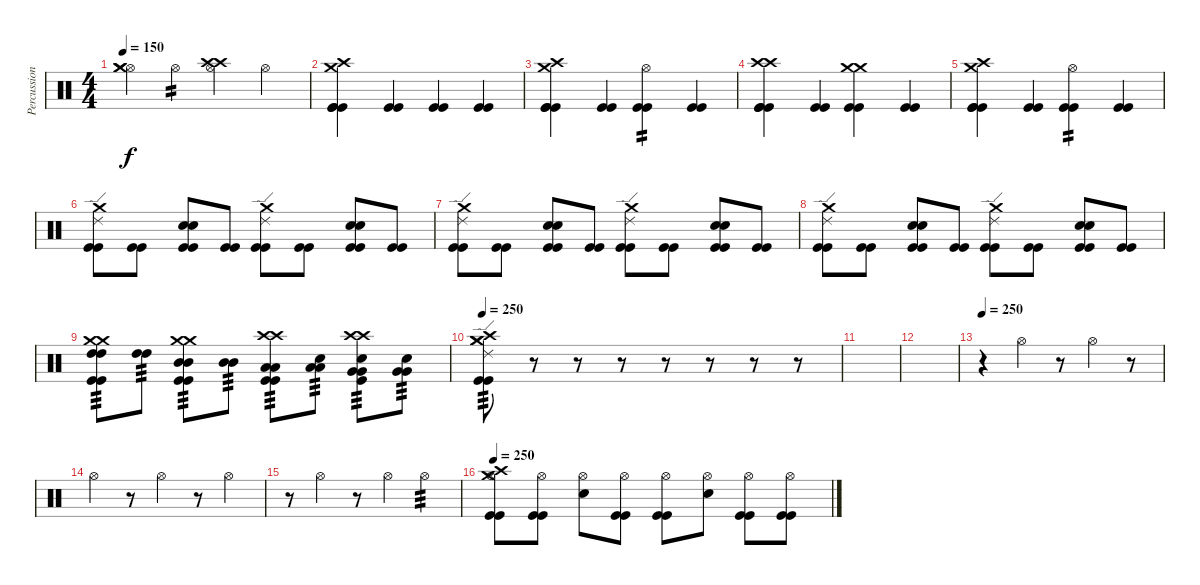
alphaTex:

\track ("Percussions" "Percussion") {instrument percussion}
\staff {score}
\articulation defaults
\ts (4 4)
\tempo 150
\clef neutral
\ks c
("Hi-Hat (open)" "Crash medium (hit)" "Crash medium (hit)").4{dy f} "Hi-Hat (open)".4{tp 2} ("Hi-Hat (open)" "Crash high (hit)" "Crash high (hit)").4 "Hi-Hat (open)".4 |
("Kick (hit)" "Kick (hit)" "Kick (hit)" "Crash medium (hit)" "Crash high (hit)").4 ("Kick (hit)" "Kick (hit)").4 ("Kick (hit)" "Kick (hit)").4 ("Kick (hit)" "Kick (hit)").4 |
("Kick (hit)" "Kick (hit)" "Kick (hit)" "Crash medium (hit)" "Crash high (hit)").4 ("Kick (hit)" "Kick (hit)").4 ("Kick (hit)" "Kick (hit)" "Hi-Hat (open)").4{tp 2} ("Kick (hit)" "Kick (hit)").4 |
("Kick (hit)" "Kick (hit)" "Kick (hit)" "Crash high (hit)" "Crash high (hit)").4 ("Kick (hit)" "Kick (hit)").4 ("Kick (hit)" "Kick (hit)" "Crash medium (hit)" "Crash medium (hit)").4 ("Kick (hit)" "Kick (hit)").4 |
("Kick (hit)" "Kick (hit)" "Kick (hit)" "Crash medium (hit)" "Crash high (hit)").4 ("Kick (hit)" "Kick (hit)").4 ("Kick (hit)" "Kick (hit)" "Hi-Hat (open)").4{tp 2} ("Kick (hit)" "Kick (hit)").4 |
("Ride (edge) 2" "Crash medium (hit)" "Kick (hit)" "Kick (hit)").8 ("Kick (hit)" "Kick (hit)").8 ("Snare (hit) 2" "Snare (hit) 2" "Kick (hit)" "Kick (hit)").8 ("Kick (hit)" "Kick (hit)").8 ("Ride (edge) 2" "Crash medium (hit)" "Kick (hit)" "Kick (hit)").8 ("Kick (hit)" "Kick (hit)").8 ("Snare (hit) 2" "Snare (hit) 2" "Kick (hit)" "Kick (hit)").8 ("Kick (hit)" "Kick (hit)").8 |
("Ride (edge) 2" "Crash medium (hit)" "Kick (hit)" "Kick (hit)").8 ("Kick (hit)" "Kick (hit)").8 ("Snare (hit) 2" "Snare (hit) 2" "Kick (hit)" "Kick (hit)").8 ("Kick (hit)" "Kick (hit)").8 ("Ride (edge) 2" "Crash medium (hit)" "Kick (hit)" "Kick (hit)").8 ("Kick (hit)" "Kick (hit)").8 ("Snare (hit) 2" "Snare (hit) 2" "Kick (hit)" "Kick (hit)").8 ("Kick (hit)" "Kick (hit)").8 |
("Ride (edge) 2" "Crash medium (hit)" "Kick (hit)" "Kick (hit)").8 ("Kick (hit)" "Kick (hit)").8 ("Snare (hit) 2" "Snare (hit) 2" "Kick (hit)" "Kick (hit)").8 ("Kick (hit)" "Kick (hit)").8 ("Ride (edge) 2" "Crash medium (hit)" "Kick (hit)" "Kick (hit)").8 ("Kick (hit)" "Kick (hit)").8 ("Snare (hit) 2" "Snare (hit) 2" "Kick (hit)" "Kick (hit)").8 ("Kick (hit)" "Kick (hit)").8 |
("Kick (hit)" "Kick (hit)" "High Tom (hit)" "High Tom (hit)" "Crash medium (hit)" "Crash medium (hit)").8{tp 3} ("High Tom (hit)" "High Tom (hit)").8{tp 3} ("Kick (hit)" "Kick (hit)" "Mid Tom (hit)" "Mid Tom (hit)" "Crash medium (hit)" "Crash medium (hit)").8{tp 3} ("Mid Tom (hit)" "Mid Tom (hit)").8{tp 3} ("Kick (hit)" "Kick (hit)" "Low Tom (hit)" "Low Tom (hit)" "Crash high (hit)" "Crash high (hit)").8{tp 3} ("Electric Snare (hit)" "Low Tom (hit)" "Low Tom (hit)").8{tp 3} ("Electric Snare (hit)" "Kick (hit)" "Very Low Tom (hit)" "Very Low Tom (hit)" "Crash high (hit)" "Crash high (hit)").8{tp 3} ("Electric Snare (hit)" "Very Low Tom (hit)" "Very Low Tom (hit)").8{tp 3} |
\tempo 250
("Crash medium (hit)" "Crash medium (hit)" "Ride (edge) 2" "Kick (hit)" "Crash high (hit)" "Kick (hit)").8{tp 3} r.8 r.8 r.8 r.8 r.8 r.8 r.8 |
|
|
\tempo 250
r.4 "Hi-Hat (open)".4 r.8 "Hi-Hat (open)".4 r.8 |
"Hi-Hat (open)".4 r.8 "Hi-Hat (open)".4 r.8 "Hi-Hat (open)".4 |
r.8 "Hi-Hat (open)".4 r.8 "Hi-Hat (open)".4 "Hi-Hat (open)".4{tp 3} |
\tempo 250
("Kick (hit)" "Kick (hit)" "Crash medium (hit)" "Hi-Hat (open)" "Crash high (hit)").8 ("Kick (hit)" "Kick (hit)" "Hi-Hat (open)").8 ("Electric Snare (hit)" "Hi-Hat (open)").8 ("Kick (hit)" "Kick (hit)" "Hi-Hat (open)").8 ("Kick (hit)" "Kick (hit)" "Hi-Hat (open)").8 ("Electric Snare (hit)" "Hi-Hat (open)").8 ("Kick (hit)" "Kick (hit)" "Hi-Hat (open)").8 ("Kick (hit)" "Kick (hit)" "Hi-Hat (open)").8
